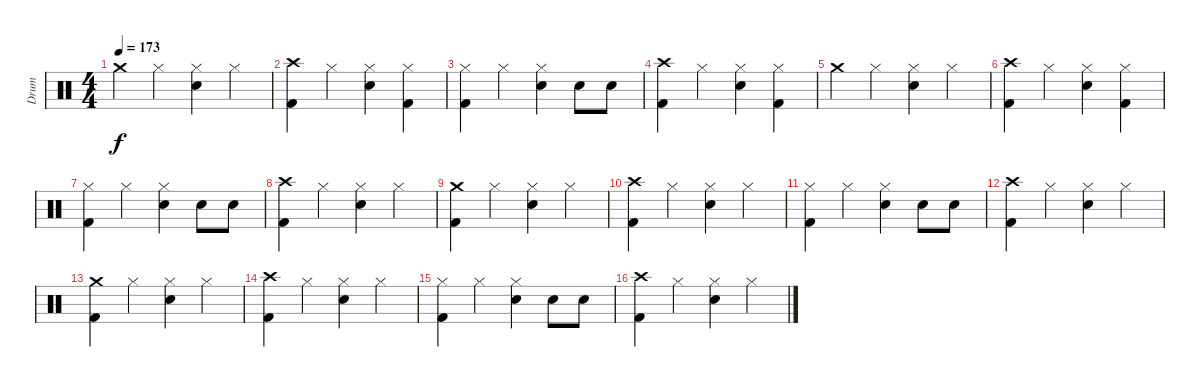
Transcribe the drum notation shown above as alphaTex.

\track ("Drum" "Drum") {instrument percussion}
\staff {score}
\articulation defaults
\ts (4 4)
\tempo 173
\clef neutral
\ks c "Crash medium (hit)".4{dy f} "Hi-Hat (closed)".4
("Hi-Hat (closed)" "Electric Snare (hit)").4 "Hi-Hat (closed)".4 |
("Crash high (hit)" "Kick (hit) 2").4 "Hi-Hat (closed)".4 ("Hi-Hat (closed)" "Electric Snare (hit)").4 ("Hi-Hat (closed)" "Kick (hit) 2").4 |
("Hi-Hat (closed)" "Kick (hit) 2").4 "Hi-Hat (closed)".4 ("Hi-Hat (closed)" "Electric Snare (hit)").4 "Electric Snare (hit)".8 "Electric Snare (hit)".8 |
("Crash high (hit)" "Kick (hit) 2").4 "Hi-Hat (closed)".4 ("Hi-Hat (closed)" "Electric Snare (hit)").4 ("Hi-Hat (closed)" "Kick (hit) 2").4 |
"Crash medium (hit)".4 "Hi-Hat (closed)".4 ("Hi-Hat (closed)" "Electric Snare (hit)").4 "Hi-Hat (closed)".4 |
("Crash high (hit)" "Kick (hit) 2").4 "Hi-Hat (closed)".4 ("Hi-Hat (closed)" "Electric Snare (hit)").4 ("Hi-Hat (closed)" "Kick (hit) 2").4 |
("Hi-Hat (closed)" "Kick (hit) 2").4 "Hi-Hat (closed)".4 ("Hi-Hat (closed)" "Electric Snare (hit)").4 "Electric Snare (hit)".8 "Electric Snare (hit)".8 |
("Crash high (hit)" "Kick (hit) 2").4 "Hi-Hat (closed)".4 ("Hi-Hat (closed)" "Electric Snare (hit)").4 "Hi-Hat (closed)".4 |
("Crash medium (hit)" "Kick (hit) 2").4 "Hi-Hat (closed)".4 ("Hi-Hat (closed)" "Electric Snare (hit)").4 "Hi-Hat (closed)".4 |
("Crash high (hit)" "Kick (hit) 2").4 "Hi-Hat (closed)".4 ("Hi-Hat (closed)" "Electric Snare (hit)").4 "Hi-Hat (closed)".4 |
("Hi-Hat (closed)" "Kick (hit) 2").4 "Hi-Hat (closed)".4 ("Hi-Hat (closed)" "Electric Snare (hit)").4 "Electric Snare (hit)".8 "Electric Snare (hit)".8 |
("Crash high (hit)" "Kick (hit) 2").4 "Hi-Hat (closed)".4 ("Hi-Hat (closed)" "Electric Snare (hit)").4 "Hi-Hat (closed)".4 |
("Crash medium (hit)" "Kick (hit) 2").4 "Hi-Hat (closed)".4 ("Hi-Hat (closed)" "Electric Snare (hit)").4 "Hi-Hat (closed)".4 |
("Crash high (hit)" "Kick (hit) 2").4 "Hi-Hat (closed)".4 ("Hi-Hat (closed)" "Electric Snare (hit)").4 "Hi-Hat (closed)".4 |
("Hi-Hat (closed)" "Kick (hit) 2").4 "Hi-Hat (closed)".4 ("Hi-Hat (closed)" "Electric Snare (hit)").4 "Electric Snare (hit)".8 "Electric Snare (hit)".8 |
("Crash high (hit)" "Kick (hit) 2").4 "Hi-Hat (closed)".4 ("Hi-Hat (closed)" "Electric Snare (hit)").4 "Hi-Hat (closed)".4
